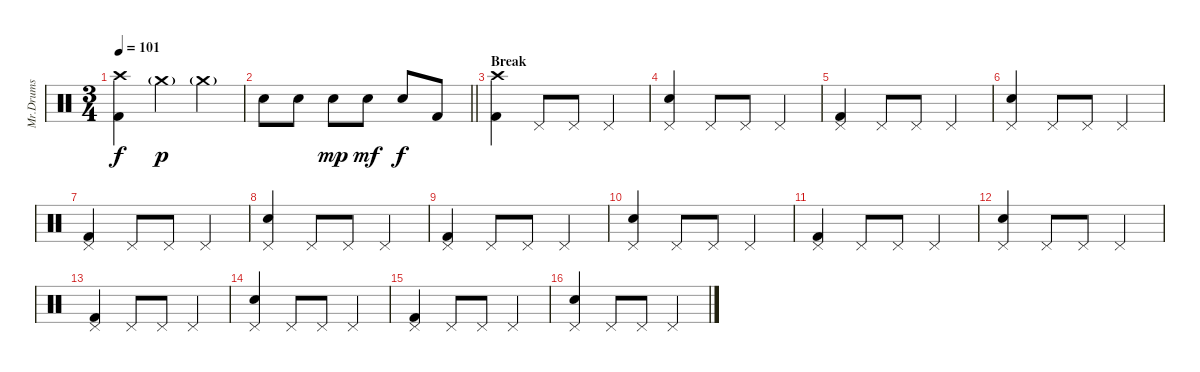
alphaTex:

\track ("Mr.Drums" "Mr.Drums") {instrument percussion}
\staff {score}
\articulation defaults
\ts (3 4)
\tempo 101
\clef neutral
\ks c
("Crash high (hit)" "Kick (hit) 2").4{dy f} "Crash medium (hit)"{g}.4{dy p} "Crash medium (hit)"{g}.4 |
\barLineRight lightlight "Electric Snare (hit)".8 "Electric Snare (hit)".8 "Electric Snare (hit)".8{dy mp} "Electric Snare (hit)".8{dy mf} "Electric Snare (hit)".8{dy f} "Kick (hit) 2".8
|
\section ("" "Break")
("Crash high (hit)" "Kick (hit) 2").4 "Pedal Hi-Hat (hit)".8 "Pedal Hi-Hat (hit)".8 "Pedal Hi-Hat (hit)".4 |
("Pedal Hi-Hat (hit)" "Electric Snare (hit)").4 "Pedal Hi-Hat (hit)".8 "Pedal Hi-Hat (hit)".8 "Pedal Hi-Hat (hit)".4 |
("Pedal Hi-Hat (hit)" "Kick (hit) 2").4 "Pedal Hi-Hat (hit)".8 "Pedal Hi-Hat (hit)".8 "Pedal Hi-Hat (hit)".4 |
("Pedal Hi-Hat (hit)" "Electric Snare (hit)").4 "Pedal Hi-Hat (hit)".8 "Pedal Hi-Hat (hit)".8 "Pedal Hi-Hat (hit)".4 |
("Pedal Hi-Hat (hit)" "Kick (hit) 2").4 "Pedal Hi-Hat (hit)".8 "Pedal Hi-Hat (hit)".8 "Pedal Hi-Hat (hit)".4 |
("Pedal Hi-Hat (hit)" "Electric Snare (hit)").4 "Pedal Hi-Hat (hit)".8 "Pedal Hi-Hat (hit)".8 "Pedal Hi-Hat (hit)".4 |
("Pedal Hi-Hat (hit)" "Kick (hit) 2").4 "Pedal Hi-Hat (hit)".8 "Pedal Hi-Hat (hit)".8 "Pedal Hi-Hat (hit)".4 |
("Pedal Hi-Hat (hit)" "Electric Snare (hit)").4 "Pedal Hi-Hat (hit)".8 "Pedal Hi-Hat (hit)".8 "Pedal Hi-Hat (hit)".4 |
("Pedal Hi-Hat (hit)" "Kick (hit) 2").4 "Pedal Hi-Hat (hit)".8 "Pedal Hi-Hat (hit)".8 "Pedal Hi-Hat (hit)".4 |
("Pedal Hi-Hat (hit)" "Electric Snare (hit)").4 "Pedal Hi-Hat (hit)".8 "Pedal Hi-Hat (hit)".8 "Pedal Hi-Hat (hit)".4 |
("Pedal Hi-Hat (hit)" "Kick (hit) 2").4 "Pedal Hi-Hat (hit)".8 "Pedal Hi-Hat (hit)".8 "Pedal Hi-Hat (hit)".4 |
("Pedal Hi-Hat (hit)" "Electric Snare (hit)").4 "Pedal Hi-Hat (hit)".8 "Pedal Hi-Hat (hit)".8 "Pedal Hi-Hat (hit)".4 |
("Pedal Hi-Hat (hit)" "Kick (hit) 2").4 "Pedal Hi-Hat (hit)".8 "Pedal Hi-Hat (hit)".8 "Pedal Hi-Hat (hit)".4 |
("Pedal Hi-Hat (hit)" "Electric Snare (hit)").4 "Pedal Hi-Hat (hit)".8 "Pedal Hi-Hat (hit)".8 "Pedal Hi-Hat (hit)".4
